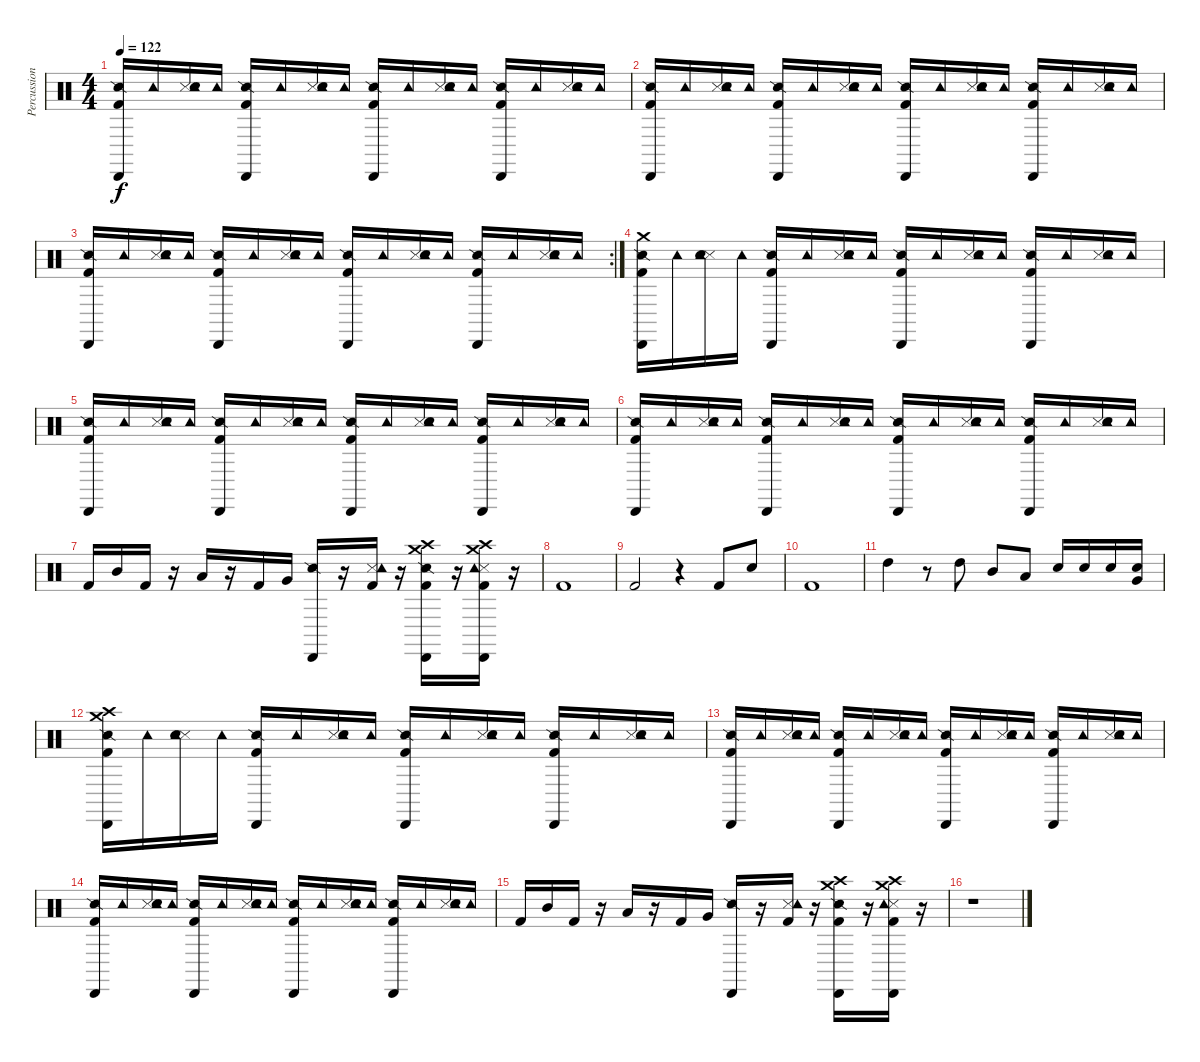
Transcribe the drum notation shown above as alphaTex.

\track ("Percussion" "Percussion") {instrument percussion}
\staff {score}
\articulation defaults
\ts (4 4)
\tempo 122
\clef neutral
\ks c
("Snare (side stick) 2" "Kick (hit) 2" "Cabasa (hit)").16{dy f} "Tambourine (hit)".16 ("Snare (side stick) 3" "Snare (hit) 2" "Tambourine (hit)").16 "Tambourine (hit)".16 ("Snare (side stick) 2" "Kick (hit) 2" "Cabasa (hit)").16 "Tambourine (hit)".16 ("Snare (side stick) 3" "Snare (hit) 2" "Tambourine (hit)").16 "Tambourine (hit)".16 ("Snare (side stick) 2" "Kick (hit) 2" "Cabasa (hit)").16 "Tambourine (hit)".16 ("Snare (side stick) 3" "Snare (hit) 2" "Tambourine (hit)").16 "Tambourine (hit)".16 ("Snare (side stick) 2" "Kick (hit) 2" "Cabasa (hit)").16 "Tambourine (hit)".16 ("Snare (side stick) 3" "Snare (hit) 2" "Tambourine (hit)").16 "Tambourine (hit)".16 |
("Snare (side stick) 2" "Kick (hit) 2" "Cabasa (hit)").16 "Tambourine (hit)".16 ("Snare (side stick) 3" "Snare (hit) 2" "Tambourine (hit)").16 "Tambourine (hit)".16 ("Snare (side stick) 2" "Kick (hit) 2" "Cabasa (hit)").16 "Tambourine (hit)".16 ("Snare (side stick) 3" "Snare (hit) 2" "Tambourine (hit)").16 "Tambourine (hit)".16 ("Snare (side stick) 2" "Kick (hit) 2" "Cabasa (hit)").16 "Tambourine (hit)".16 ("Snare (side stick) 3" "Snare (hit) 2" "Tambourine (hit)").16 "Tambourine (hit)".16 ("Snare (side stick) 2" "Kick (hit) 2" "Cabasa (hit)").16 "Tambourine (hit)".16 ("Snare (side stick) 3" "Snare (hit) 2" "Tambourine (hit)").16 "Tambourine (hit)".16 |
\rc 2
("Snare (side stick) 2" "Kick (hit) 2" "Cabasa (hit)").16 "Tambourine (hit)".16 ("Snare (side stick) 3" "Snare (hit) 2" "Tambourine (hit)").16 "Tambourine (hit)".16 ("Snare (side stick) 2" "Kick (hit) 2" "Cabasa (hit)").16 "Tambourine (hit)".16 ("Snare (side stick) 3" "Snare (hit) 2" "Tambourine (hit)").16 "Tambourine (hit)".16 ("Snare (side stick) 2" "Kick (hit) 2" "Cabasa (hit)").16 "Tambourine (hit)".16 ("Snare (side stick) 3" "Snare (hit) 2" "Tambourine (hit)").16 "Tambourine (hit)".16 ("Snare (side stick) 2" "Kick (hit) 2" "Cabasa (hit)").16 "Tambourine (hit)".16 ("Snare (side stick) 3" "Snare (hit) 2" "Tambourine (hit)").16 "Tambourine (hit)".16 |
("Snare (side stick) 2" "Crash medium (hit)" "Kick (hit) 2" "Cabasa (hit)").16 "Tambourine (hit)".16 ("Snare (side stick) 3" "Snare (hit) 2" "Tambourine (hit)").16 "Tambourine (hit)".16 ("Snare (side stick) 2" "Kick (hit) 2" "Cabasa (hit)").16 "Tambourine (hit)".16 ("Snare (side stick) 3" "Snare (hit) 2" "Tambourine (hit)").16 "Tambourine (hit)".16 ("Snare (side stick) 2" "Kick (hit) 2" "Cabasa (hit)").16 "Tambourine (hit)".16 ("Snare (side stick) 3" "Snare (hit) 2" "Tambourine (hit)").16 "Tambourine (hit)".16 ("Snare (side stick) 2" "Kick (hit) 2" "Cabasa (hit)").16 "Tambourine (hit)".16 ("Snare (side stick) 3" "Snare (hit) 2" "Tambourine (hit)").16 "Tambourine (hit)".16 |
("Snare (side stick) 2" "Kick (hit) 2" "Cabasa (hit)").16 "Tambourine (hit)".16 ("Snare (side stick) 3" "Snare (hit) 2" "Tambourine (hit)").16 "Tambourine (hit)".16 ("Snare (side stick) 2" "Kick (hit) 2" "Cabasa (hit)").16 "Tambourine (hit)".16 ("Snare (side stick) 3" "Snare (hit) 2" "Tambourine (hit)").16 "Tambourine (hit)".16 ("Snare (side stick) 2" "Kick (hit) 2" "Cabasa (hit)").16 "Tambourine (hit)".16 ("Snare (side stick) 3" "Snare (hit) 2" "Tambourine (hit)").16 "Tambourine (hit)".16 ("Snare (side stick) 2" "Kick (hit) 2" "Cabasa (hit)").16 "Tambourine (hit)".16 ("Snare (side stick) 3" "Snare (hit) 2" "Tambourine (hit)").16 "Tambourine (hit)".16 |
("Snare (side stick) 2" "Kick (hit) 2" "Cabasa (hit)").16 "Tambourine (hit)".16 ("Snare (side stick) 3" "Snare (hit) 2" "Tambourine (hit)").16 "Tambourine (hit)".16 ("Snare (side stick) 2" "Kick (hit) 2" "Cabasa (hit)").16 "Tambourine (hit)".16 ("Snare (side stick) 3" "Snare (hit) 2" "Tambourine (hit)").16 "Tambourine (hit)".16 ("Snare (side stick) 2" "Kick (hit) 2" "Cabasa (hit)").16 "Tambourine (hit)".16 ("Snare (side stick) 3" "Snare (hit) 2" "Tambourine (hit)").16 "Tambourine (hit)".16 ("Snare (side stick) 2" "Kick (hit) 2" "Cabasa (hit)").16 "Tambourine (hit)".16 ("Snare (side stick) 3" "Snare (hit) 2" "Tambourine (hit)").16 "Tambourine (hit)".16 |
"Kick (hit) 2".16 "Mid Tom (hit)".16 "Kick (hit) 2".16 r.16 "Low Tom (hit)".16 r.16 "Kick (hit) 2".16 "Very Low Tom (hit)".16 ("Snare (side stick) 2" "Cabasa (hit)").16 r.16 ("Snare (side stick) 3" "Tambourine (hit)" "Kick (hit) 2").16 r.16 ("Snare (side stick) 2" "Crash medium (hit)" "Crash high (hit)" "Kick (hit) 2" "Cabasa (hit)").16 r.16 ("Snare (side stick) 3" "Crash medium (hit)" "Crash high (hit)" "Kick (hit) 2" "Tambourine (hit)" "Cabasa (hit)").16 r.16 |
"Kick (hit) 2".1 |
"Kick (hit) 2".2 r.4 "Kick (hit) 2".8 "Snare (hit) 2".8 |
"Kick (hit) 2".1 |
"High Tom (hit)".4 r.8 "High Tom (hit)".8 "Mid Tom (hit)".8 "Low Tom (hit)".8 "Snare (hit) 2".16 "Snare (hit) 2".16 "Snare (hit) 2".16 ("Very Low Tom (hit)" "Snare (hit) 2").16 |
("Snare (side stick) 2" "Crash medium (hit)" "Crash high (hit)" "Kick (hit) 2" "Cabasa (hit)").16 "Tambourine (hit)".16 ("Snare (side stick) 3" "Snare (hit) 2" "Tambourine (hit)").16 "Tambourine (hit)".16 ("Snare (side stick) 2" "Kick (hit) 2" "Cabasa (hit)").16 "Tambourine (hit)".16 ("Snare (side stick) 3" "Snare (hit) 2" "Tambourine (hit)").16 "Tambourine (hit)".16 ("Snare (side stick) 2" "Kick (hit) 2" "Cabasa (hit)").16 "Tambourine (hit)".16 ("Snare (side stick) 3" "Snare (hit) 2" "Tambourine (hit)").16 "Tambourine (hit)".16 ("Snare (side stick) 2" "Kick (hit) 2" "Cabasa (hit)").16 "Tambourine (hit)".16 ("Snare (side stick) 3" "Snare (hit) 2" "Tambourine (hit)").16 "Tambourine (hit)".16 |
("Snare (side stick) 2" "Kick (hit) 2" "Cabasa (hit)").16 "Tambourine (hit)".16 ("Snare (side stick) 3" "Snare (hit) 2" "Tambourine (hit)").16 "Tambourine (hit)".16 ("Snare (side stick) 2" "Kick (hit) 2" "Cabasa (hit)").16 "Tambourine (hit)".16 ("Snare (side stick) 3" "Snare (hit) 2" "Tambourine (hit)").16 "Tambourine (hit)".16 ("Snare (side stick) 2" "Kick (hit) 2" "Cabasa (hit)").16 "Tambourine (hit)".16 ("Snare (side stick) 3" "Snare (hit) 2" "Tambourine (hit)").16 "Tambourine (hit)".16 ("Snare (side stick) 2" "Kick (hit) 2" "Cabasa (hit)").16 "Tambourine (hit)".16 ("Snare (side stick) 3" "Snare (hit) 2" "Tambourine (hit)").16 "Tambourine (hit)".16 |
("Snare (side stick) 2" "Kick (hit) 2" "Cabasa (hit)").16 "Tambourine (hit)".16 ("Snare (side stick) 3" "Snare (hit) 2" "Tambourine (hit)").16 "Tambourine (hit)".16 ("Snare (side stick) 2" "Kick (hit) 2" "Cabasa (hit)").16 "Tambourine (hit)".16 ("Snare (side stick) 3" "Snare (hit) 2" "Tambourine (hit)").16 "Tambourine (hit)".16 ("Snare (side stick) 2" "Kick (hit) 2" "Cabasa (hit)").16 "Tambourine (hit)".16 ("Snare (side stick) 3" "Snare (hit) 2" "Tambourine (hit)").16 "Tambourine (hit)".16 ("Snare (side stick) 2" "Kick (hit) 2" "Cabasa (hit)").16 "Tambourine (hit)".16 ("Snare (side stick) 3" "Snare (hit) 2" "Tambourine (hit)").16 "Tambourine (hit)".16 |
"Kick (hit) 2".16 "Mid Tom (hit)".16 "Kick (hit) 2".16 r.16 "Low Tom (hit)".16 r.16 "Kick (hit) 2".16 "Very Low Tom (hit)".16 ("Snare (side stick) 2" "Cabasa (hit)").16 r.16 ("Snare (side stick) 3" "Tambourine (hit)" "Kick (hit) 2").16 r.16 ("Snare (side stick) 2" "Crash medium (hit)" "Crash high (hit)" "Kick (hit) 2" "Cabasa (hit)").16 r.16 ("Snare (side stick) 3" "Crash medium (hit)" "Crash high (hit)" "Kick (hit) 2" "Tambourine (hit)" "Cabasa (hit)").16 r.16 |
r.1
